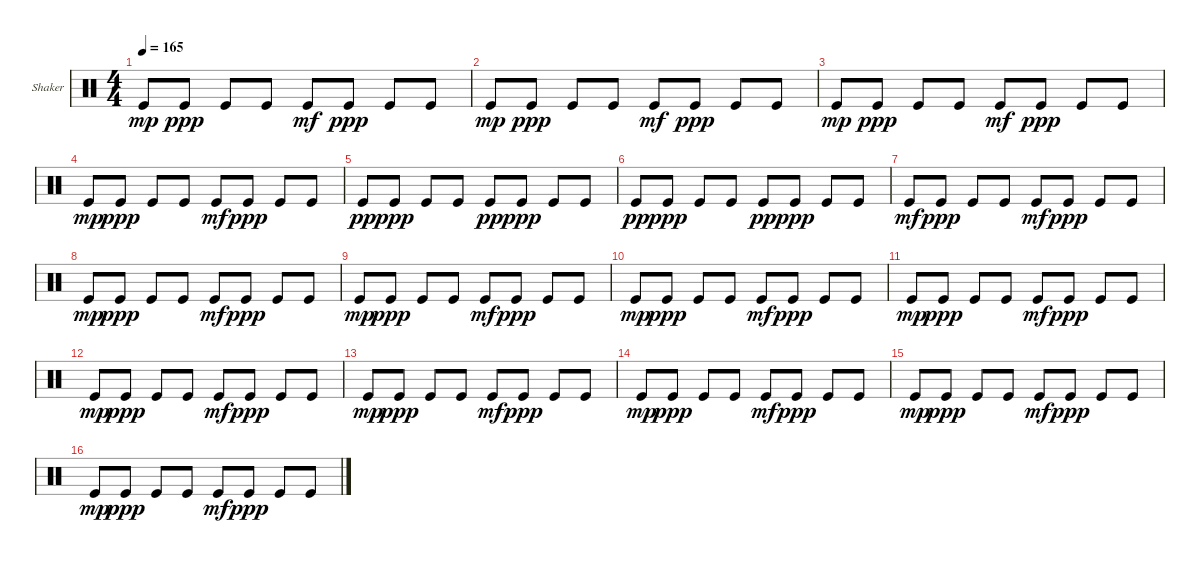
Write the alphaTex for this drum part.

\defaultSystemsLayout 4
\bracketExtendMode groupsimilarinstruments
\firstSystemTrackNameOrientation horizontal
\otherSystemsTrackNameOrientation horizontal
\track ("Shaker" "Shaker") {instrument percussion}
\staff {score}
\articulation defaults
\ts (4 4)
\tempo 165
\clef neutral
\ks c "Kick (hit)".8{dy mp} "Kick (hit)".8{dy ppp} "Kick (hit)".8 "Kick (hit)".8 "Kick (hit)".8{dy mf} "Kick (hit)".8{dy ppp} "Kick (hit)".8 "Kick (hit)".8
|
"Kick (hit)".8{dy mp} "Kick (hit)".8{dy ppp} "Kick (hit)".8 "Kick (hit)".8 "Kick (hit)".8{dy mf} "Kick (hit)".8{dy ppp} "Kick (hit)".8 "Kick (hit)".8 |
"Kick (hit)".8{dy mp} "Kick (hit)".8{dy ppp} "Kick (hit)".8 "Kick (hit)".8 "Kick (hit)".8{dy mf} "Kick (hit)".8{dy ppp} "Kick (hit)".8 "Kick (hit)".8 |
"Kick (hit)".8{dy mp} "Kick (hit)".8{dy ppp} "Kick (hit)".8 "Kick (hit)".8 "Kick (hit)".8{dy mf} "Kick (hit)".8{dy ppp} "Kick (hit)".8 "Kick (hit)".8 |
"Kick (hit)".8{dy pp} "Kick (hit)".8{dy ppp} "Kick (hit)".8 "Kick (hit)".8 "Kick (hit)".8{dy pp} "Kick (hit)".8{dy ppp} "Kick (hit)".8 "Kick (hit)".8 |
"Kick (hit)".8{dy pp} "Kick (hit)".8{dy ppp} "Kick (hit)".8 "Kick (hit)".8 "Kick (hit)".8{dy pp} "Kick (hit)".8{dy ppp} "Kick (hit)".8 "Kick (hit)".8 |
"Kick (hit)".8{dy mf} "Kick (hit)".8{dy ppp} "Kick (hit)".8 "Kick (hit)".8 "Kick (hit)".8{dy mf} "Kick (hit)".8{dy ppp} "Kick (hit)".8 "Kick (hit)".8 |
"Kick (hit)".8{dy mp} "Kick (hit)".8{dy ppp} "Kick (hit)".8 "Kick (hit)".8 "Kick (hit)".8{dy mf} "Kick (hit)".8{dy ppp} "Kick (hit)".8 "Kick (hit)".8 |
"Kick (hit)".8{dy mp} "Kick (hit)".8{dy ppp} "Kick (hit)".8 "Kick (hit)".8 "Kick (hit)".8{dy mf} "Kick (hit)".8{dy ppp} "Kick (hit)".8 "Kick (hit)".8 |
"Kick (hit)".8{dy mp} "Kick (hit)".8{dy ppp} "Kick (hit)".8 "Kick (hit)".8 "Kick (hit)".8{dy mf} "Kick (hit)".8{dy ppp} "Kick (hit)".8 "Kick (hit)".8 |
"Kick (hit)".8{dy mp} "Kick (hit)".8{dy ppp} "Kick (hit)".8 "Kick (hit)".8 "Kick (hit)".8{dy mf} "Kick (hit)".8{dy ppp} "Kick (hit)".8 "Kick (hit)".8 |
"Kick (hit)".8{dy mp} "Kick (hit)".8{dy ppp} "Kick (hit)".8 "Kick (hit)".8 "Kick (hit)".8{dy mf} "Kick (hit)".8{dy ppp} "Kick (hit)".8 "Kick (hit)".8 |
"Kick (hit)".8{dy mp} "Kick (hit)".8{dy ppp} "Kick (hit)".8 "Kick (hit)".8 "Kick (hit)".8{dy mf} "Kick (hit)".8{dy ppp} "Kick (hit)".8 "Kick (hit)".8 |
"Kick (hit)".8{dy mp} "Kick (hit)".8{dy ppp} "Kick (hit)".8 "Kick (hit)".8 "Kick (hit)".8{dy mf} "Kick (hit)".8{dy ppp} "Kick (hit)".8 "Kick (hit)".8 |
"Kick (hit)".8{dy mp} "Kick (hit)".8{dy ppp} "Kick (hit)".8 "Kick (hit)".8 "Kick (hit)".8{dy mf} "Kick (hit)".8{dy ppp} "Kick (hit)".8 "Kick (hit)".8 |
"Kick (hit)".8{dy mp} "Kick (hit)".8{dy ppp} "Kick (hit)".8 "Kick (hit)".8 "Kick (hit)".8{dy mf} "Kick (hit)".8{dy ppp} "Kick (hit)".8 "Kick (hit)".8
